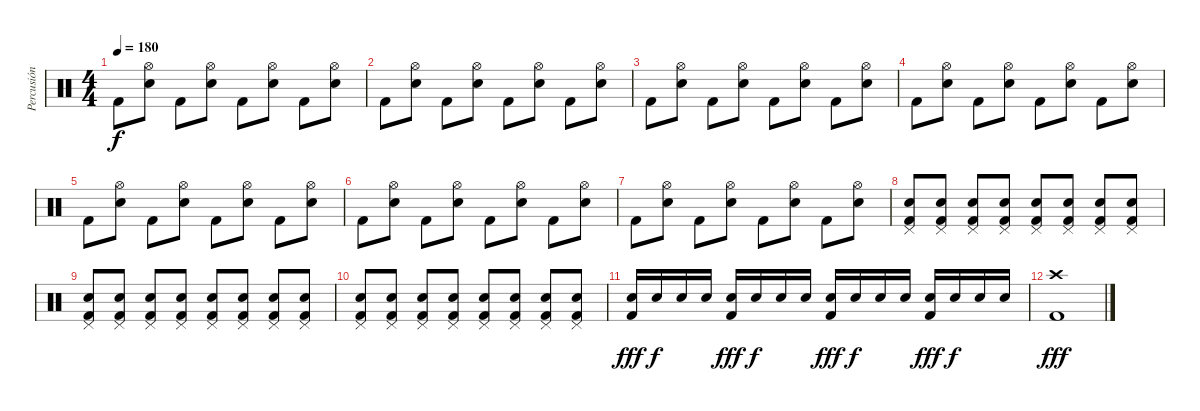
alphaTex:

\track ("Percusión" "Percusión") {instrument percussion}
\staff {score}
\articulation defaults
\ts (4 4)
\tempo 180
\clef neutral
\ks c "Kick (hit) 2".8{dy f}
("Hi-Hat (open)" "Electric Snare (hit)").8 "Kick (hit) 2".8 ("Hi-Hat (open)" "Electric Snare (hit)").8 "Kick (hit) 2".8 ("Hi-Hat (open)" "Electric Snare (hit)").8 "Kick (hit) 2".8 ("Hi-Hat (open)" "Electric Snare (hit)").8 |
"Kick (hit) 2".8 ("Hi-Hat (open)" "Electric Snare (hit)").8 "Kick (hit) 2".8 ("Hi-Hat (open)" "Electric Snare (hit)").8 "Kick (hit) 2".8 ("Hi-Hat (open)" "Electric Snare (hit)").8 "Kick (hit) 2".8 ("Hi-Hat (open)" "Electric Snare (hit)").8 |
"Kick (hit) 2".8 ("Hi-Hat (open)" "Electric Snare (hit)").8 "Kick (hit) 2".8 ("Hi-Hat (open)" "Electric Snare (hit)").8 "Kick (hit) 2".8 ("Hi-Hat (open)" "Electric Snare (hit)").8 "Kick (hit) 2".8 ("Hi-Hat (open)" "Electric Snare (hit)").8 |
"Kick (hit) 2".8 ("Hi-Hat (open)" "Electric Snare (hit)").8 "Kick (hit) 2".8 ("Hi-Hat (open)" "Electric Snare (hit)").8 "Kick (hit) 2".8 ("Hi-Hat (open)" "Electric Snare (hit)").8 "Kick (hit) 2".8 ("Hi-Hat (open)" "Electric Snare (hit)").8 |
"Kick (hit) 2".8 ("Hi-Hat (open)" "Electric Snare (hit)").8 "Kick (hit) 2".8 ("Hi-Hat (open)" "Electric Snare (hit)").8 "Kick (hit) 2".8 ("Hi-Hat (open)" "Electric Snare (hit)").8 "Kick (hit) 2".8 ("Hi-Hat (open)" "Electric Snare (hit)").8 |
"Kick (hit) 2".8 ("Hi-Hat (open)" "Electric Snare (hit)").8 "Kick (hit) 2".8 ("Hi-Hat (open)" "Electric Snare (hit)").8 "Kick (hit) 2".8 ("Hi-Hat (open)" "Electric Snare (hit)").8 "Kick (hit) 2".8 ("Hi-Hat (open)" "Electric Snare (hit)").8 |
"Kick (hit) 2".8 ("Hi-Hat (open)" "Electric Snare (hit)").8 "Kick (hit) 2".8 ("Hi-Hat (open)" "Electric Snare (hit)").8 "Kick (hit) 2".8 ("Hi-Hat (open)" "Electric Snare (hit)").8 "Kick (hit) 2".8 ("Hi-Hat (open)" "Electric Snare (hit)").8 |
("Pedal Hi-Hat (hit)" "Electric Snare (hit)" "Kick (hit) 2").8 ("Pedal Hi-Hat (hit)" "Electric Snare (hit)" "Kick (hit) 2").8 ("Pedal Hi-Hat (hit)" "Electric Snare (hit)" "Kick (hit) 2").8 ("Pedal Hi-Hat (hit)" "Electric Snare (hit)" "Kick (hit) 2").8 ("Pedal Hi-Hat (hit)" "Electric Snare (hit)" "Kick (hit) 2").8 ("Pedal Hi-Hat (hit)" "Electric Snare (hit)" "Kick (hit) 2").8 ("Pedal Hi-Hat (hit)" "Electric Snare (hit)" "Kick (hit) 2").8 ("Pedal Hi-Hat (hit)" "Electric Snare (hit)" "Kick (hit) 2").8 |
("Pedal Hi-Hat (hit)" "Electric Snare (hit)" "Kick (hit) 2").8 ("Pedal Hi-Hat (hit)" "Electric Snare (hit)" "Kick (hit) 2").8 ("Pedal Hi-Hat (hit)" "Electric Snare (hit)" "Kick (hit) 2").8 ("Pedal Hi-Hat (hit)" "Electric Snare (hit)" "Kick (hit) 2").8 ("Pedal Hi-Hat (hit)" "Electric Snare (hit)" "Kick (hit) 2").8 ("Pedal Hi-Hat (hit)" "Electric Snare (hit)" "Kick (hit) 2").8 ("Pedal Hi-Hat (hit)" "Electric Snare (hit)" "Kick (hit) 2").8 ("Pedal Hi-Hat (hit)" "Electric Snare (hit)" "Kick (hit) 2").8 |
("Pedal Hi-Hat (hit)" "Electric Snare (hit)" "Kick (hit) 2").8 ("Pedal Hi-Hat (hit)" "Electric Snare (hit)" "Kick (hit) 2").8 ("Pedal Hi-Hat (hit)" "Electric Snare (hit)" "Kick (hit) 2").8 ("Pedal Hi-Hat (hit)" "Electric Snare (hit)" "Kick (hit) 2").8 ("Pedal Hi-Hat (hit)" "Electric Snare (hit)" "Kick (hit) 2").8 ("Pedal Hi-Hat (hit)" "Electric Snare (hit)" "Kick (hit) 2").8 ("Pedal Hi-Hat (hit)" "Electric Snare (hit)" "Kick (hit) 2").8 ("Pedal Hi-Hat (hit)" "Electric Snare (hit)" "Kick (hit) 2").8 |
("Electric Snare (hit)" "Kick (hit) 2").16{dy fff} "Electric Snare (hit)".16{dy f} "Electric Snare (hit)".16 "Electric Snare (hit)".16 ("Electric Snare (hit)" "Kick (hit) 2").16{dy fff} "Electric Snare (hit)".16{dy f} "Electric Snare (hit)".16 "Electric Snare (hit)".16 ("Electric Snare (hit)" "Kick (hit) 2").16{dy fff} "Electric Snare (hit)".16{dy f} "Electric Snare (hit)".16 "Electric Snare (hit)".16 ("Electric Snare (hit)" "Kick (hit) 2").16{dy fff} "Electric Snare (hit)".16{dy f} "Electric Snare (hit)".16 "Electric Snare (hit)".16 |
("Crash high (hit)" "Kick (hit) 2").1{dy fff}
